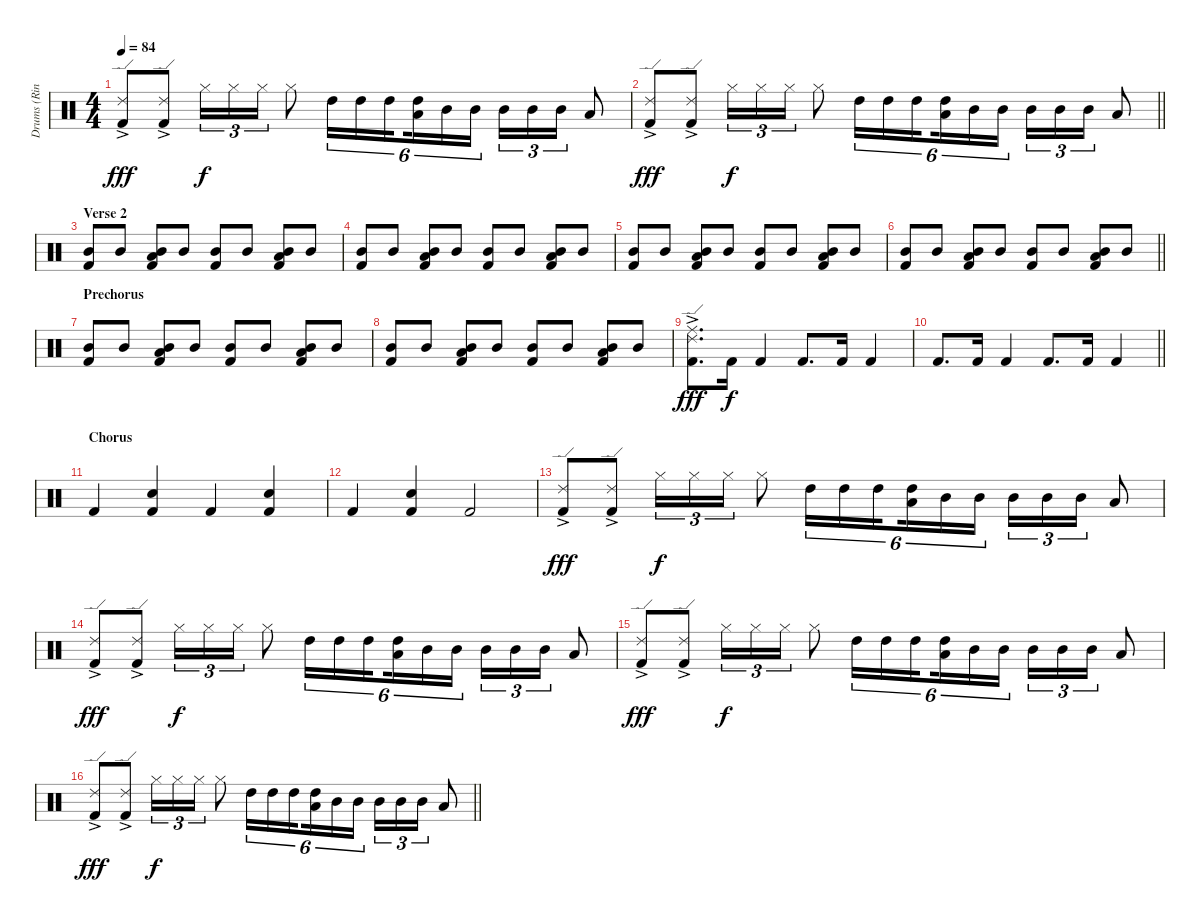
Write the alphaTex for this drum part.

\track ("Drums (Ringo Starr)" "Drums (Rin") {instrument percussion}
\staff {score}
\articulation defaults
\ts (4 4)
\tempo 84
\clef neutral
\ks c
("Ride (edge) 2"{ac} "Kick (hit) 2").8{dy fff} ("Ride (edge) 2"{ac} "Kick (hit) 2").8 "Hi-Hat (closed)".16{tu (3 2) dy f} "Hi-Hat (closed)".16{tu (3 2)} "Hi-Hat (closed)".16{tu (3 2)} "Hi-Hat (closed)".8 "High Tom (hit)".16{tu (6 4)} "High Tom (hit)".16{tu (6 4)} "High Tom (hit)".16{tu (6 4) beam splitsecondary} ("High Tom (hit)" "Low Tom (hit)").16{tu (6 4)} "Mid Tom (hit)".16{tu (6 4)} "Mid Tom (hit)".16{tu (6 4)} "Mid Tom (hit)".16{tu (3 2)} "Mid Tom (hit)".16{tu (3 2)} "Mid Tom (hit)".16{tu (3 2)} "Low Tom (hit)".8 |
\barLineRight lightlight
("Ride (edge) 2"{ac} "Kick (hit) 2").8{dy fff} ("Ride (edge) 2"{ac} "Kick (hit) 2").8 "Hi-Hat (closed)".16{tu (3 2) dy f} "Hi-Hat (closed)".16{tu (3 2)} "Hi-Hat (closed)".16{tu (3 2)} "Hi-Hat (closed)".8 "High Tom (hit)".16{tu (6 4)} "High Tom (hit)".16{tu (6 4)} "High Tom (hit)".16{tu (6 4) beam splitsecondary} ("High Tom (hit)" "Low Tom (hit)").16{tu (6 4)} "Mid Tom (hit)".16{tu (6 4)} "Mid Tom (hit)".16{tu (6 4)} "Mid Tom (hit)".16{tu (3 2)} "Mid Tom (hit)".16{tu (3 2)} "Mid Tom (hit)".16{tu (3 2)} "Low Tom (hit)".8 |
\section ("" "Verse 2")
("Mid Tom (hit)" "Kick (hit) 2").8 "Mid Tom (hit)".8 ("Mid Tom (hit)" "Low Tom (hit)" "Kick (hit) 2").8 "Mid Tom (hit)".8 ("Mid Tom (hit)" "Kick (hit) 2").8 "Mid Tom (hit)".8 ("Mid Tom (hit)" "Low Tom (hit)" "Kick (hit) 2").8 "Mid Tom (hit)".8 |
("Mid Tom (hit)" "Kick (hit) 2").8 "Mid Tom (hit)".8 ("Mid Tom (hit)" "Low Tom (hit)" "Kick (hit) 2").8 "Mid Tom (hit)".8 ("Mid Tom (hit)" "Kick (hit) 2").8 "Mid Tom (hit)".8 ("Mid Tom (hit)" "Low Tom (hit)" "Kick (hit) 2").8 "Mid Tom (hit)".8 |
("Mid Tom (hit)" "Kick (hit) 2").8 "Mid Tom (hit)".8 ("Mid Tom (hit)" "Low Tom (hit)" "Kick (hit) 2").8 "Mid Tom (hit)".8 ("Mid Tom (hit)" "Kick (hit) 2").8 "Mid Tom (hit)".8 ("Mid Tom (hit)" "Low Tom (hit)" "Kick (hit) 2").8 "Mid Tom (hit)".8 |
\barLineRight lightlight
("Mid Tom (hit)" "Kick (hit) 2").8 "Mid Tom (hit)".8 ("Mid Tom (hit)" "Low Tom (hit)" "Kick (hit) 2").8 "Mid Tom (hit)".8 ("Mid Tom (hit)" "Kick (hit) 2").8 "Mid Tom (hit)".8 ("Mid Tom (hit)" "Low Tom (hit)" "Kick (hit) 2").8 "Mid Tom (hit)".8 |
\section ("" "Prechorus")
("Mid Tom (hit)" "Kick (hit) 2").8 "Mid Tom (hit)".8 ("Mid Tom (hit)" "Low Tom (hit)" "Kick (hit) 2").8 "Mid Tom (hit)".8 ("Mid Tom (hit)" "Kick (hit) 2").8 "Mid Tom (hit)".8 ("Mid Tom (hit)" "Low Tom (hit)" "Kick (hit) 2").8 "Mid Tom (hit)".8 |
("Mid Tom (hit)" "Kick (hit) 2").8 "Mid Tom (hit)".8 ("Mid Tom (hit)" "Low Tom (hit)" "Kick (hit) 2").8 "Mid Tom (hit)".8 ("Mid Tom (hit)" "Kick (hit) 2").8 "Mid Tom (hit)".8 ("Mid Tom (hit)" "Low Tom (hit)" "Kick (hit) 2").8 "Mid Tom (hit)".8 |
("Ride (edge) 2"{ac} "Ride (middle)"{ac} "Kick (hit) 2").8{d dy fff} "Kick (hit) 2".16{dy f} "Kick (hit) 2".4 "Kick (hit) 2".8{d} "Kick (hit) 2".16 "Kick (hit) 2".4 |
\barLineRight lightlight "Kick (hit) 2".8{d} "Kick (hit) 2".16 "Kick (hit) 2".4 "Kick (hit) 2".8{d} "Kick (hit) 2".16 "Kick (hit) 2".4
|
\section ("" "Chorus")
"Kick (hit) 2".4 ("Snare (hit) 2" "Kick (hit) 2").4 "Kick (hit) 2".4 ("Snare (hit) 2" "Kick (hit) 2").4 |
"Kick (hit) 2".4 ("Snare (hit) 2" "Kick (hit) 2").4 "Kick (hit) 2".2 |
("Ride (edge) 2"{ac} "Kick (hit) 2").8{dy fff} ("Ride (edge) 2"{ac} "Kick (hit) 2").8 "Hi-Hat (closed)".16{tu (3 2) dy f} "Hi-Hat (closed)".16{tu (3 2)} "Hi-Hat (closed)".16{tu (3 2)} "Hi-Hat (closed)".8 "High Tom (hit)".16{tu (6 4)} "High Tom (hit)".16{tu (6 4)} "High Tom (hit)".16{tu (6 4) beam splitsecondary} ("High Tom (hit)" "Low Tom (hit)").16{tu (6 4)} "Mid Tom (hit)".16{tu (6 4)} "Mid Tom (hit)".16{tu (6 4)} "Mid Tom (hit)".16{tu (3 2)} "Mid Tom (hit)".16{tu (3 2)} "Mid Tom (hit)".16{tu (3 2)} "Low Tom (hit)".8 |
("Ride (edge) 2"{ac} "Kick (hit) 2").8{dy fff} ("Ride (edge) 2"{ac} "Kick (hit) 2").8 "Hi-Hat (closed)".16{tu (3 2) dy f} "Hi-Hat (closed)".16{tu (3 2)} "Hi-Hat (closed)".16{tu (3 2)} "Hi-Hat (closed)".8 "High Tom (hit)".16{tu (6 4)} "High Tom (hit)".16{tu (6 4)} "High Tom (hit)".16{tu (6 4) beam splitsecondary} ("High Tom (hit)" "Low Tom (hit)").16{tu (6 4)} "Mid Tom (hit)".16{tu (6 4)} "Mid Tom (hit)".16{tu (6 4)} "Mid Tom (hit)".16{tu (3 2)} "Mid Tom (hit)".16{tu (3 2)} "Mid Tom (hit)".16{tu (3 2)} "Low Tom (hit)".8 |
("Ride (edge) 2"{ac} "Kick (hit) 2").8{dy fff} ("Ride (edge) 2"{ac} "Kick (hit) 2").8 "Hi-Hat (closed)".16{tu (3 2) dy f} "Hi-Hat (closed)".16{tu (3 2)} "Hi-Hat (closed)".16{tu (3 2)} "Hi-Hat (closed)".8 "High Tom (hit)".16{tu (6 4)} "High Tom (hit)".16{tu (6 4)} "High Tom (hit)".16{tu (6 4) beam splitsecondary} ("High Tom (hit)" "Low Tom (hit)").16{tu (6 4)} "Mid Tom (hit)".16{tu (6 4)} "Mid Tom (hit)".16{tu (6 4)} "Mid Tom (hit)".16{tu (3 2)} "Mid Tom (hit)".16{tu (3 2)} "Mid Tom (hit)".16{tu (3 2)} "Low Tom (hit)".8 |
\barLineRight lightlight
("Ride (edge) 2"{ac} "Kick (hit) 2").8{dy fff} ("Ride (edge) 2"{ac} "Kick (hit) 2").8 "Hi-Hat (closed)".16{tu (3 2) dy f} "Hi-Hat (closed)".16{tu (3 2)} "Hi-Hat (closed)".16{tu (3 2)} "Hi-Hat (closed)".8 "High Tom (hit)".16{tu (6 4)} "High Tom (hit)".16{tu (6 4)} "High Tom (hit)".16{tu (6 4) beam splitsecondary} ("High Tom (hit)" "Low Tom (hit)").16{tu (6 4)} "Mid Tom (hit)".16{tu (6 4)} "Mid Tom (hit)".16{tu (6 4)} "Mid Tom (hit)".16{tu (3 2)} "Mid Tom (hit)".16{tu (3 2)} "Mid Tom (hit)".16{tu (3 2)} "Low Tom (hit)".8
